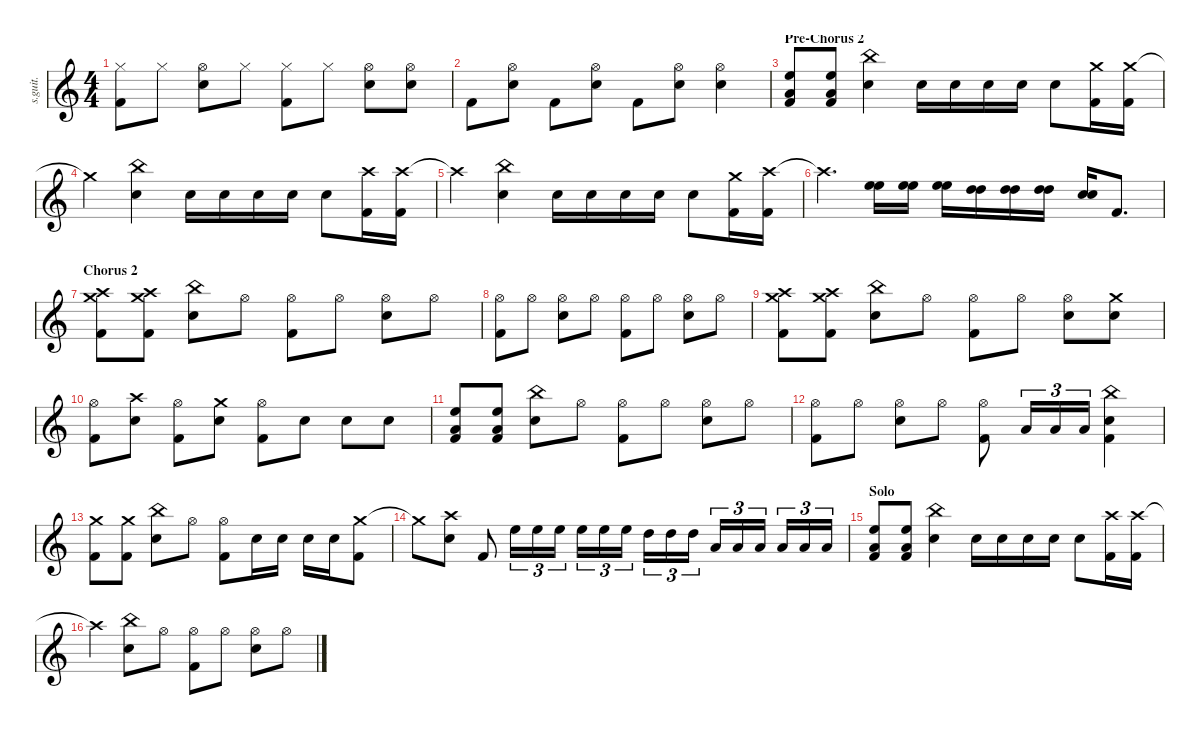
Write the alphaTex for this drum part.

\defaultSystemsLayout 4
\hideDynamics
\bracketExtendMode nobrackets
\track ("Mountain" "s.guit.") {instrument percussion}
\staff {score}
\articulation defaults
\ts (4 4)
\tempo (88 hide)
\clef g2
\ks c
("Hi-Hat (closed)" "Kick (hit) 2").8{dy f} "Hi-Hat (closed)".8 ("Hi-Hat (open)" "Snare (hit) 2").8 "Hi-Hat (closed)".8 ("Hi-Hat (closed)" "Kick (hit) 2").8 "Hi-Hat (closed)".8 ("Hi-Hat (open)" "Snare (hit) 2").8 ("Hi-Hat (open)" "Snare (hit) 2").8 |
"Kick (hit) 2".8 ("Hi-Hat (open)" "Snare (hit) 2").8 "Kick (hit) 2".8 ("Hi-Hat (open)" "Snare (hit) 2").8 "Kick (hit) 2".8 ("Hi-Hat (open)" "Snare (hit) 2").8 ("Hi-Hat (open)" "Snare (hit) 2").4 |
\section ("" "Pre-Chorus 2")
("High Floor Tom (hit)" "Low Tom (hit)" "Kick (hit) 2").8 ("High Floor Tom (hit)" "Low Tom (hit)" "Kick (hit) 2").8 ("China (hit)" "Snare (hit) 2").4 "Snare (hit) 2".16 "Snare (hit) 2".16 "Snare (hit) 2".16 "Snare (hit) 2".16 "Snare (hit) 2".8 ("Crash medium (hit)" "Kick (hit) 2").16 ("Crash medium (hit)" "Kick (hit) 2").16 |
"Crash medium (hit)"{t}.4 ("China (hit)" "Snare (hit) 2").4 "Snare (hit) 2".16 "Snare (hit) 2".16 "Snare (hit) 2".16 "Snare (hit) 2".16 "Snare (hit) 2".8 ("Crash high (hit)" "Kick (hit) 2").16 ("Crash high (hit)" "Kick (hit) 2").16 |
"Crash high (hit)"{t}.4 ("China (hit)" "Snare (hit) 2").4 "Snare (hit) 2".16 "Snare (hit) 2".16 "Snare (hit) 2".16 "Snare (hit) 2".16 "Snare (hit) 2".8 ("Crash medium (hit)" "Kick (hit) 2").16 ("Crash high (hit)" "Kick (hit) 2").16 |
"Crash high (hit)"{t}.4{d} ("High Floor Tom (hit)" "High Floor Tom (hit)").16 ("High Floor Tom (hit)" "High Floor Tom (hit)").16 ("High Floor Tom (hit)" "High Floor Tom (hit)").16 ("High Tom (hit)" "High Tom (hit)").16 ("High Tom (hit)" "High Tom (hit)").16 ("High Tom (hit)" "High Tom (hit)").16 ("Snare (hit) 2" "Snare (hit) 2").16{bu 30} "Kick (hit) 2".8{d} |
\section ("" "Chorus 2")
("Crash medium (hit)" "Crash high (hit)" "Kick (hit) 2").8 ("Crash medium (hit)" "Crash high (hit)" "Kick (hit) 2").8 ("China (hit)" "Snare (hit) 2").8 "Hi-Hat (open)".8 ("Hi-Hat (open)" "Kick (hit) 2").8 "Hi-Hat (open)".8 ("Hi-Hat (open)" "Snare (hit) 2").8 "Hi-Hat (open)".8 |
("Hi-Hat (open)" "Kick (hit) 2").8 "Hi-Hat (open)".8 ("Hi-Hat (open)" "Snare (hit) 2").8 "Hi-Hat (open)".8 ("Hi-Hat (open)" "Kick (hit) 2").8 "Hi-Hat (open)".8 ("Hi-Hat (open)" "Snare (hit) 2").8 "Hi-Hat (open)".8 |
("Crash medium (hit)" "Crash high (hit)" "Kick (hit) 2").8 ("Crash medium (hit)" "Crash high (hit)" "Kick (hit) 2").8 ("China (hit)" "Snare (hit) 2").8 "Hi-Hat (open)".8 ("Hi-Hat (open)" "Kick (hit) 2").8 "Hi-Hat (open)".8 ("Hi-Hat (open)" "Snare (hit) 2").8 ("Crash medium (hit)" "Snare (hit) 2").8 |
("Hi-Hat (open)" "Kick (hit) 2").8 ("Crash high (hit)" "Snare (hit) 2").8 ("Hi-Hat (open)" "Kick (hit) 2").8 ("Crash medium (hit)" "Snare (hit) 2").8 ("Hi-Hat (open)" "Kick (hit) 2").8 "Snare (hit) 2".8 "Snare (hit) 2".8 "Snare (hit) 2".8 |
("High Floor Tom (hit)" "Low Tom (hit)" "Kick (hit) 2").8 ("High Floor Tom (hit)" "Low Tom (hit)" "Kick (hit) 2").8 ("China (hit)" "Snare (hit) 2").8 "Hi-Hat (open)".8 ("Hi-Hat (open)" "Kick (hit) 2").8 "Hi-Hat (open)".8 ("Hi-Hat (open)" "Snare (hit) 2").8 "Hi-Hat (open)".8 |
("Hi-Hat (open)" "Kick (hit) 2").8 "Hi-Hat (open)".8 ("Hi-Hat (open)" "Snare (hit) 2").8 "Hi-Hat (open)".8 ("Hi-Hat (open)" "Kick (hit) 2").8 "Low Tom (hit)".16{tu (3 2)} "Low Tom (hit)".16{tu (3 2)} "Low Tom (hit)".16{tu (3 2)} ("China (hit)" "Snare (hit) 2" "Kick (hit) 2").4 |
("Crash medium (hit)" "Kick (hit) 2").8 ("Crash medium (hit)" "Kick (hit) 2").8 ("China (hit)" "Snare (hit) 2").8 "Hi-Hat (open)".8 ("Hi-Hat (open)" "Kick (hit) 2").8 "Snare (hit) 2".16 "Snare (hit) 2".16 "Snare (hit) 2".16 "Snare (hit) 2".16 ("Crash medium (hit)" "Kick (hit) 2").8 |
"Crash medium (hit)"{t}.8 ("Crash high (hit)" "Snare (hit) 2").8 "Kick (hit) 2".8 "High Floor Tom (hit)".16{tu (3 2)} "High Floor Tom (hit)".16{tu (3 2)} "High Floor Tom (hit)".16{tu (3 2)} "High Floor Tom (hit)".16{tu (3 2)} "High Floor Tom (hit)".16{tu (3 2)} "High Floor Tom (hit)".16{tu (3 2)} "High Tom (hit)".16{tu (3 2)} "High Tom (hit)".16{tu (3 2)} "High Tom (hit)".16{tu (3 2)} "Low Tom (hit)".16{tu (3 2)} "Low Tom (hit)".16{tu (3 2)} "Low Tom (hit)".16{tu (3 2)} "Low Tom (hit)".16{tu (3 2)} "Low Tom (hit)".16{tu (3 2)} "Low Tom (hit)".16{tu (3 2)} |
\section ("" "Solo")
("High Floor Tom (hit)" "Low Tom (hit)" "Kick (hit) 2").8 ("High Floor Tom (hit)" "Low Tom (hit)" "Kick (hit) 2").8 ("China (hit)" "Snare (hit) 2").4 "Snare (hit) 2".16 "Snare (hit) 2".16 "Snare (hit) 2".16 "Snare (hit) 2".16 "Snare (hit) 2".8 ("Crash high (hit)" "Kick (hit) 2").16 ("Crash high (hit)" "Kick (hit) 2").16 |
"Crash high (hit)"{t}.4 ("China (hit)" "Snare (hit) 2").8 "Hi-Hat (open)".8 ("Hi-Hat (open)" "Kick (hit) 2").8 "Hi-Hat (open)".8 ("Hi-Hat (open)" "Snare (hit) 2").8 "Hi-Hat (open)".8
